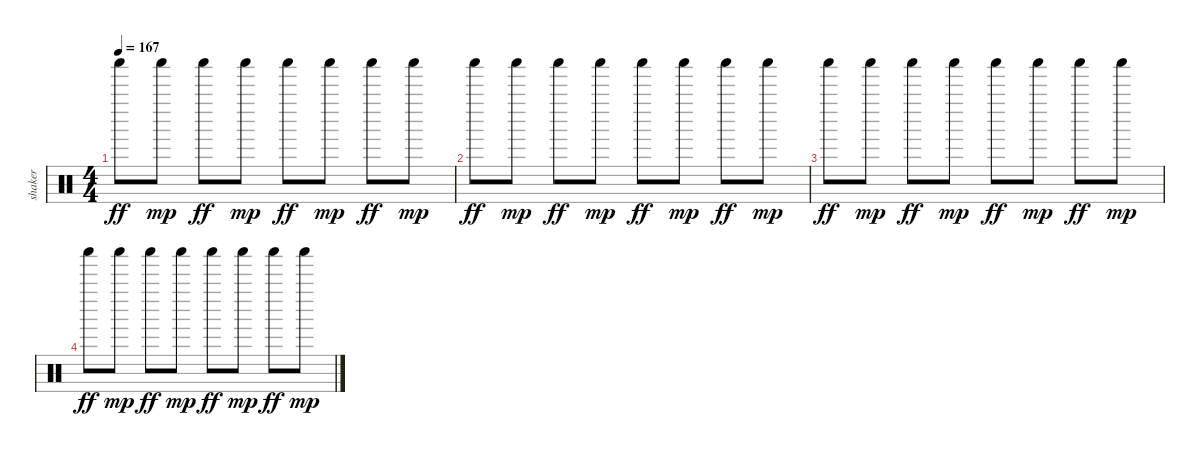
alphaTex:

\track ("shaker" "shaker") {instrument percussion}
\staff {score}
\articulation defaults
\ts (4 4)
\tempo 167
\clef neutral
\ks c "Shaker (hit)".8{dy ff} "Shaker (hit)".8{dy mp} "Shaker (hit)".8{dy ff} "Shaker (hit)".8{dy mp} "Shaker (hit)".8{dy ff} "Shaker (hit)".8{dy mp} "Shaker (hit)".8{dy ff} "Shaker (hit)".8{dy mp}
|
"Shaker (hit)".8{dy ff} "Shaker (hit)".8{dy mp} "Shaker (hit)".8{dy ff} "Shaker (hit)".8{dy mp} "Shaker (hit)".8{dy ff} "Shaker (hit)".8{dy mp} "Shaker (hit)".8{dy ff} "Shaker (hit)".8{dy mp} |
"Shaker (hit)".8{dy ff} "Shaker (hit)".8{dy mp} "Shaker (hit)".8{dy ff} "Shaker (hit)".8{dy mp} "Shaker (hit)".8{dy ff} "Shaker (hit)".8{dy mp} "Shaker (hit)".8{dy ff} "Shaker (hit)".8{dy mp} |
"Shaker (hit)".8{dy ff} "Shaker (hit)".8{dy mp} "Shaker (hit)".8{dy ff} "Shaker (hit)".8{dy mp} "Shaker (hit)".8{dy ff} "Shaker (hit)".8{dy mp} "Shaker (hit)".8{dy ff} "Shaker (hit)".8{dy mp}
